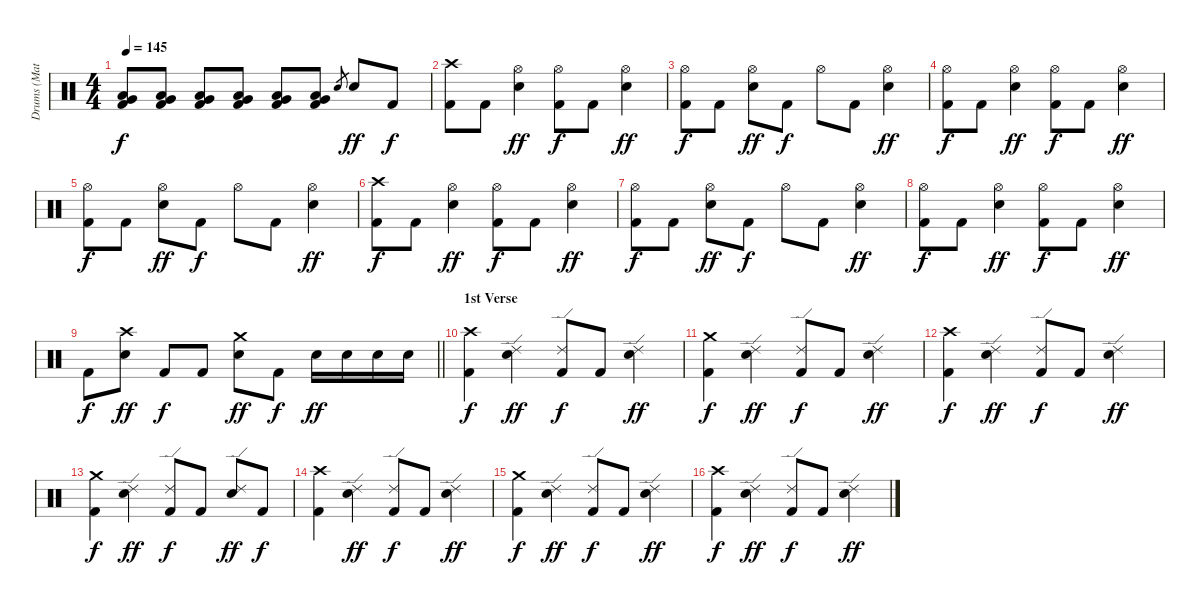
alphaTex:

\track ("Drums (Matt)" "Drums (Mat") {instrument percussion}
\staff {score}
\articulation defaults
\ts (4 4)
\tempo 145
\clef neutral
\ks c
("Low Tom (hit)" "Very Low Tom (hit)" "Kick (hit) 2").8{dy f} ("Low Tom (hit)" "Very Low Tom (hit)" "Kick (hit) 2").8 ("Low Tom (hit)" "Very Low Tom (hit)" "Kick (hit) 2").8 ("Low Tom (hit)" "Very Low Tom (hit)" "Kick (hit) 2").8 ("Low Tom (hit)" "Very Low Tom (hit)" "Kick (hit) 2").8 ("Low Tom (hit)" "Very Low Tom (hit)" "Kick (hit) 2").8 "Snare (hit) 2".8{gr} "Snare (hit) 2".8{dy ff} "Kick (hit) 2".8{dy f} |
("Crash high (hit)" "Kick (hit) 2").8 "Kick (hit) 2".8 ("Hi-Hat (open)" "Snare (hit) 2").4{dy ff} ("Hi-Hat (open)" "Kick (hit) 2").8{dy f} "Kick (hit) 2".8 ("Hi-Hat (open)" "Snare (hit) 2").4{dy ff} |
("Hi-Hat (open)" "Kick (hit) 2").8{dy f} "Kick (hit) 2".8 ("Hi-Hat (open)" "Snare (hit) 2").8{dy ff} "Kick (hit) 2".8{dy f} "Hi-Hat (open)".8 "Kick (hit) 2".8 ("Hi-Hat (open)" "Snare (hit) 2").4{dy ff} |
("Hi-Hat (open)" "Kick (hit) 2").8{dy f} "Kick (hit) 2".8 ("Hi-Hat (open)" "Snare (hit) 2").4{dy ff} ("Hi-Hat (open)" "Kick (hit) 2").8{dy f} "Kick (hit) 2".8 ("Hi-Hat (open)" "Snare (hit) 2").4{dy ff} |
("Hi-Hat (open)" "Kick (hit) 2").8{dy f} "Kick (hit) 2".8 ("Hi-Hat (open)" "Snare (hit) 2").8{dy ff} "Kick (hit) 2".8{dy f} "Hi-Hat (open)".8 "Kick (hit) 2".8 ("Hi-Hat (open)" "Snare (hit) 2").4{dy ff} |
("Crash high (hit)" "Kick (hit) 2").8{dy f} "Kick (hit) 2".8 ("Hi-Hat (open)" "Snare (hit) 2").4{dy ff} ("Hi-Hat (open)" "Kick (hit) 2").8{dy f} "Kick (hit) 2".8 ("Hi-Hat (open)" "Snare (hit) 2").4{dy ff} |
("Hi-Hat (open)" "Kick (hit) 2").8{dy f} "Kick (hit) 2".8 ("Hi-Hat (open)" "Snare (hit) 2").8{dy ff} "Kick (hit) 2".8{dy f} "Hi-Hat (open)".8 "Kick (hit) 2".8 ("Hi-Hat (open)" "Snare (hit) 2").4{dy ff} |
("Hi-Hat (open)" "Kick (hit) 2").8{dy f} "Kick (hit) 2".8 ("Hi-Hat (open)" "Snare (hit) 2").4{dy ff} ("Hi-Hat (open)" "Kick (hit) 2").8{dy f} "Kick (hit) 2".8 ("Hi-Hat (open)" "Snare (hit) 2").4{dy ff} |
\barLineRight lightlight "Kick (hit) 2".8{dy f}
("Crash high (hit)" "Snare (hit) 2").8{dy ff} "Kick (hit) 2".8{dy f} "Kick (hit) 2".8 ("Crash medium (hit)" "Snare (hit) 2").8{dy ff} "Kick (hit) 2".8{dy f} "Snare (hit) 2".16{dy ff} "Snare (hit) 2".16 "Snare (hit) 2".16 "Snare (hit) 2".16 |
\section ("" "1st Verse")
("Crash high (hit)" "Kick (hit) 2").4{dy f} ("Ride (edge) 2" "Snare (hit) 2").4{dy ff} ("Ride (edge) 2" "Kick (hit) 2").8{dy f} "Kick (hit) 2".8 ("Ride (edge) 2" "Snare (hit) 2").4{dy ff} |
("Crash medium (hit)" "Kick (hit) 2").4{dy f} ("Ride (edge) 2" "Snare (hit) 2").4{dy ff} ("Ride (edge) 2" "Kick (hit) 2").8{dy f} "Kick (hit) 2".8 ("Ride (edge) 2" "Snare (hit) 2").4{dy ff} |
("Crash high (hit)" "Kick (hit) 2").4{dy f} ("Ride (edge) 2" "Snare (hit) 2").4{dy ff} ("Ride (edge) 2" "Kick (hit) 2").8{dy f} "Kick (hit) 2".8 ("Ride (edge) 2" "Snare (hit) 2").4{dy ff} |
("Crash medium (hit)" "Kick (hit) 2").4{dy f} ("Ride (edge) 2" "Snare (hit) 2").4{dy ff} ("Ride (edge) 2" "Kick (hit) 2").8{dy f} "Kick (hit) 2".8 ("Ride (edge) 2" "Snare (hit) 2").8{dy ff} "Kick (hit) 2".8{dy f} |
("Crash high (hit)" "Kick (hit) 2").4 ("Ride (edge) 2" "Snare (hit) 2").4{dy ff} ("Ride (edge) 2" "Kick (hit) 2").8{dy f} "Kick (hit) 2".8 ("Ride (edge) 2" "Snare (hit) 2").4{dy ff} |
("Crash medium (hit)" "Kick (hit) 2").4{dy f} ("Ride (edge) 2" "Snare (hit) 2").4{dy ff} ("Ride (edge) 2" "Kick (hit) 2").8{dy f} "Kick (hit) 2".8 ("Ride (edge) 2" "Snare (hit) 2").4{dy ff} |
("Crash high (hit)" "Kick (hit) 2").4{dy f} ("Ride (edge) 2" "Snare (hit) 2").4{dy ff} ("Ride (edge) 2" "Kick (hit) 2").8{dy f} "Kick (hit) 2".8 ("Ride (edge) 2" "Snare (hit) 2").4{dy ff}
